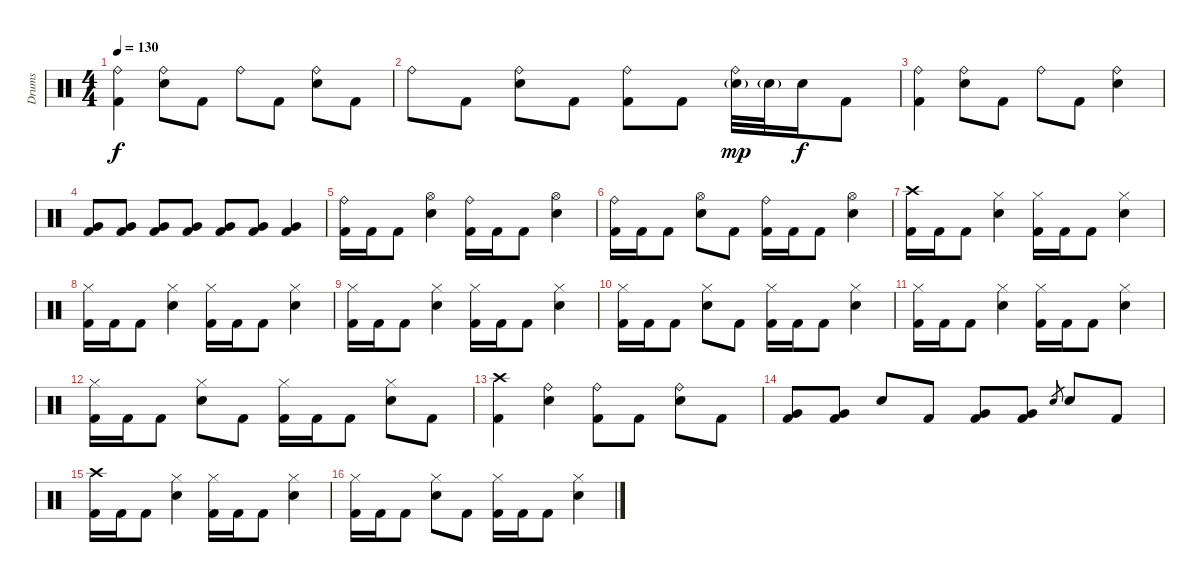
\track ("Drums" "Drums") {instrument percussion}
\staff {score}
\articulation defaults
\ts (4 4)
\tempo 130
\clef neutral
\ks c
("Ride (bell)" "Kick (hit) 2").4{dy f} ("Ride (bell)" "Electric Snare (hit)").8 "Kick (hit) 2".8 "Ride (bell)".8 "Kick (hit) 2".8 ("Ride (bell)" "Electric Snare (hit)").8 "Kick (hit) 2".8 |
"Ride (bell)".8 "Kick (hit) 2".8 ("Ride (bell)" "Electric Snare (hit)").8 "Kick (hit) 2".8 ("Ride (bell)" "Kick (hit) 2").8 "Kick (hit) 2".8 ("Ride (bell)" "Electric Snare (hit)"{g}).32{dy mp} "Electric Snare (hit)"{g}.32 "Electric Snare (hit)".16{dy f} "Kick (hit) 2".8 |
("Ride (bell)" "Kick (hit) 2").4 ("Ride (bell)" "Electric Snare (hit)").8 "Kick (hit) 2".8 "Ride (bell)".8 "Kick (hit) 2".8 ("Ride (bell)" "Electric Snare (hit)").4 |
("Very Low Tom (hit)" "Kick (hit) 2").8 ("Very Low Tom (hit)" "Kick (hit) 2").8 ("Very Low Tom (hit)" "Kick (hit) 2").8 ("Very Low Tom (hit)" "Kick (hit) 2").8 ("Very Low Tom (hit)" "Kick (hit) 2").8 ("Very Low Tom (hit)" "Kick (hit) 2").8 ("Very Low Tom (hit)" "Kick (hit) 2").4 |
("Ride (bell)" "Kick (hit) 2").16 "Kick (hit) 2".16 "Kick (hit) 2".8 ("Hi-Hat (open)" "Electric Snare (hit)").4 ("Ride (bell)" "Kick (hit) 2").16 "Kick (hit) 2".16 "Kick (hit) 2".8 ("Hi-Hat (open)" "Electric Snare (hit)").4 |
("Ride (bell)" "Kick (hit) 2").16 "Kick (hit) 2".16 "Kick (hit) 2".8 ("Hi-Hat (open)" "Electric Snare (hit)").8 "Kick (hit) 2".8 ("Ride (bell)" "Kick (hit) 2").16 "Kick (hit) 2".16 "Kick (hit) 2".8 ("Hi-Hat (open)" "Electric Snare (hit)").4 |
("Crash high (hit)" "Kick (hit) 2").16 "Kick (hit) 2".16 "Kick (hit) 2".8 ("Hi-Hat (closed)" "Electric Snare (hit)").4 ("Hi-Hat (closed)" "Kick (hit) 2").16 "Kick (hit) 2".16 "Kick (hit) 2".8 ("Hi-Hat (closed)" "Electric Snare (hit)").4 |
("Hi-Hat (closed)" "Kick (hit) 2").16 "Kick (hit) 2".16 "Kick (hit) 2".8 ("Hi-Hat (closed)" "Electric Snare (hit)").4 ("Hi-Hat (closed)" "Kick (hit) 2").16 "Kick (hit) 2".16 "Kick (hit) 2".8 ("Hi-Hat (closed)" "Electric Snare (hit)").4 |
("Hi-Hat (closed)" "Kick (hit) 2").16 "Kick (hit) 2".16 "Kick (hit) 2".8 ("Hi-Hat (closed)" "Electric Snare (hit)").4 ("Hi-Hat (closed)" "Kick (hit) 2").16 "Kick (hit) 2".16 "Kick (hit) 2".8 ("Hi-Hat (closed)" "Electric Snare (hit)").4 |
("Hi-Hat (closed)" "Kick (hit) 2").16 "Kick (hit) 2".16 "Kick (hit) 2".8 ("Hi-Hat (closed)" "Electric Snare (hit)").8 "Kick (hit) 2".8 ("Hi-Hat (closed)" "Kick (hit) 2").16 "Kick (hit) 2".16 "Kick (hit) 2".8 ("Hi-Hat (closed)" "Electric Snare (hit)").4 |
("Hi-Hat (closed)" "Kick (hit) 2").16 "Kick (hit) 2".16 "Kick (hit) 2".8 ("Hi-Hat (closed)" "Electric Snare (hit)").4 ("Hi-Hat (closed)" "Kick (hit) 2").16 "Kick (hit) 2".16 "Kick (hit) 2".8 ("Hi-Hat (closed)" "Electric Snare (hit)").4 |
("Hi-Hat (closed)" "Kick (hit) 2").16 "Kick (hit) 2".16 "Kick (hit) 2".8 ("Hi-Hat (closed)" "Electric Snare (hit)").8 "Kick (hit) 2".8 ("Hi-Hat (closed)" "Kick (hit) 2").16 "Kick (hit) 2".16 "Kick (hit) 2".8 ("Hi-Hat (closed)" "Electric Snare (hit)").8 "Kick (hit) 2".8 |
("Crash high (hit)" "Kick (hit) 2").4 ("Ride (bell)" "Electric Snare (hit)").4 ("Ride (bell)" "Kick (hit) 2").8 "Kick (hit) 2".8 ("Ride (bell)" "Electric Snare (hit)").8 "Kick (hit) 2".8 |
("Very Low Tom (hit)" "Kick (hit) 2").8 ("Very Low Tom (hit)" "Kick (hit) 2").8 "Electric Snare (hit)".8 "Kick (hit) 2".8 ("Very Low Tom (hit)" "Kick (hit) 2").8 ("Very Low Tom (hit)" "Kick (hit) 2").8 "Electric Snare (hit)".8{gr} "Electric Snare (hit)".8 "Kick (hit) 2".8 |
("Crash high (hit)" "Kick (hit) 2").16 "Kick (hit) 2".16 "Kick (hit) 2".8 ("Hi-Hat (closed)" "Electric Snare (hit)").4 ("Hi-Hat (closed)" "Kick (hit) 2").16 "Kick (hit) 2".16 "Kick (hit) 2".8 ("Hi-Hat (closed)" "Electric Snare (hit)").4 |
("Hi-Hat (closed)" "Kick (hit) 2").16 "Kick (hit) 2".16 "Kick (hit) 2".8 ("Hi-Hat (closed)" "Electric Snare (hit)").8 "Kick (hit) 2".8 ("Hi-Hat (closed)" "Kick (hit) 2").16 "Kick (hit) 2".16 "Kick (hit) 2".8 ("Hi-Hat (closed)" "Electric Snare (hit)").4
